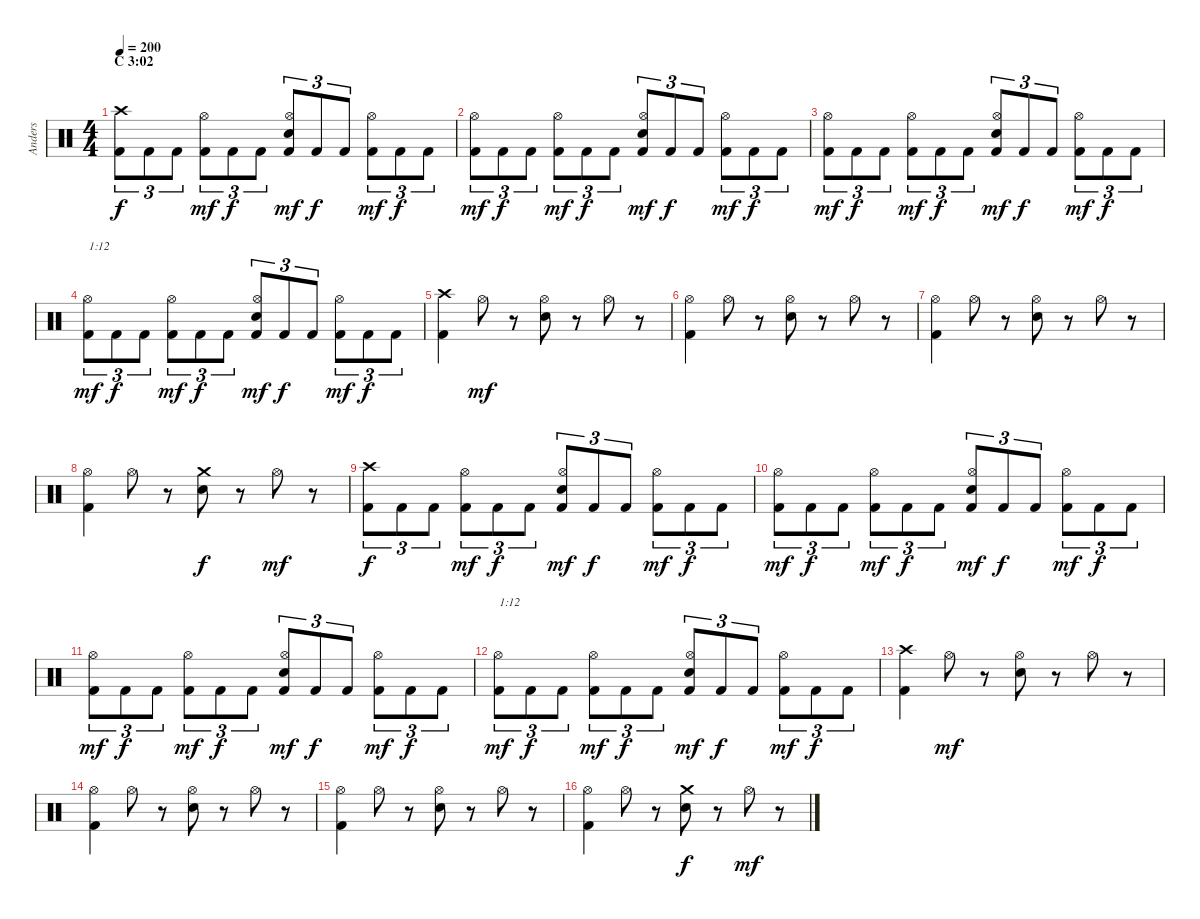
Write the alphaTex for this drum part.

\track ("Anders" "Anders") {instrument percussion}
\staff {score}
\articulation defaults
\ts (4 4)
\section ("" "C 3:02")
\tempo 200
\clef neutral
\ks c
("Kick (hit) 2" "Crash high (hit)").8{tu (3 2) dy f} "Kick (hit) 2".8{tu (3 2)} "Kick (hit) 2".8{tu (3 2)} ("Kick (hit) 2" "Hi-Hat (open)").8{tu (3 2) dy mf} "Kick (hit) 2".8{tu (3 2) dy f} "Kick (hit) 2".8{tu (3 2)} ("Kick (hit) 2" "Electric Snare (hit)" "Hi-Hat (open)").8{tu (3 2) dy mf} "Kick (hit) 2".8{tu (3 2) dy f} "Kick (hit) 2".8{tu (3 2)} ("Kick (hit) 2" "Hi-Hat (open)").8{tu (3 2) dy mf} "Kick (hit) 2".8{tu (3 2) dy f} "Kick (hit) 2".8{tu (3 2)} |
("Kick (hit) 2" "Hi-Hat (open)").8{tu (3 2) dy mf} "Kick (hit) 2".8{tu (3 2) dy f} "Kick (hit) 2".8{tu (3 2)} ("Kick (hit) 2" "Hi-Hat (open)").8{tu (3 2) dy mf} "Kick (hit) 2".8{tu (3 2) dy f} "Kick (hit) 2".8{tu (3 2)} ("Kick (hit) 2" "Electric Snare (hit)" "Hi-Hat (open)").8{tu (3 2) dy mf} "Kick (hit) 2".8{tu (3 2) dy f} "Kick (hit) 2".8{tu (3 2)} ("Kick (hit) 2" "Hi-Hat (open)").8{tu (3 2) dy mf} "Kick (hit) 2".8{tu (3 2) dy f} "Kick (hit) 2".8{tu (3 2)} |
("Kick (hit) 2" "Hi-Hat (open)").8{tu (3 2) dy mf} "Kick (hit) 2".8{tu (3 2) dy f} "Kick (hit) 2".8{tu (3 2)} ("Kick (hit) 2" "Hi-Hat (open)").8{tu (3 2) dy mf} "Kick (hit) 2".8{tu (3 2) dy f} "Kick (hit) 2".8{tu (3 2)} ("Kick (hit) 2" "Electric Snare (hit)" "Hi-Hat (open)").8{tu (3 2) dy mf} "Kick (hit) 2".8{tu (3 2) dy f} "Kick (hit) 2".8{tu (3 2)} ("Kick (hit) 2" "Hi-Hat (open)").8{tu (3 2) dy mf} "Kick (hit) 2".8{tu (3 2) dy f} "Kick (hit) 2".8{tu (3 2)} |
("Kick (hit) 2" "Hi-Hat (open)").8{tu (3 2) txt "1:12" dy mf} "Kick (hit) 2".8{tu (3 2) dy f} "Kick (hit) 2".8{tu (3 2)} ("Kick (hit) 2" "Hi-Hat (open)").8{tu (3 2) dy mf} "Kick (hit) 2".8{tu (3 2) dy f} "Kick (hit) 2".8{tu (3 2)} ("Kick (hit) 2" "Electric Snare (hit)" "Hi-Hat (open)").8{tu (3 2) dy mf} "Kick (hit) 2".8{tu (3 2) dy f} "Kick (hit) 2".8{tu (3 2)} ("Kick (hit) 2" "Hi-Hat (open)").8{tu (3 2) dy mf} "Kick (hit) 2".8{tu (3 2) dy f} "Kick (hit) 2".8{tu (3 2)} |
("Kick (hit) 2" "Crash high (hit)").4 "Hi-Hat (open)".8{dy mf} r.8 ("Electric Snare (hit)" "Hi-Hat (open)").8 r.8 "Hi-Hat (open)".8 r.8 |
("Kick (hit) 2" "Hi-Hat (open)").4 "Hi-Hat (open)".8 r.8 ("Electric Snare (hit)" "Hi-Hat (open)").8 r.8 "Hi-Hat (open)".8 r.8 |
("Kick (hit) 2" "Hi-Hat (open)").4 "Hi-Hat (open)".8 r.8 ("Electric Snare (hit)" "Hi-Hat (open)").8 r.8 "Hi-Hat (open)".8 r.8 |
("Kick (hit) 2" "Hi-Hat (open)").4 "Hi-Hat (open)".8 r.8 ("Electric Snare (hit)" "Crash medium (hit)").8{dy f} r.8 "Hi-Hat (open)".8{dy mf} r.8 |
("Kick (hit) 2" "Crash high (hit)").8{tu (3 2) dy f} "Kick (hit) 2".8{tu (3 2)} "Kick (hit) 2".8{tu (3 2)} ("Kick (hit) 2" "Hi-Hat (open)").8{tu (3 2) dy mf} "Kick (hit) 2".8{tu (3 2) dy f} "Kick (hit) 2".8{tu (3 2)} ("Kick (hit) 2" "Electric Snare (hit)" "Hi-Hat (open)").8{tu (3 2) dy mf} "Kick (hit) 2".8{tu (3 2) dy f} "Kick (hit) 2".8{tu (3 2)} ("Kick (hit) 2" "Hi-Hat (open)").8{tu (3 2) dy mf} "Kick (hit) 2".8{tu (3 2) dy f} "Kick (hit) 2".8{tu (3 2)} |
("Kick (hit) 2" "Hi-Hat (open)").8{tu (3 2) dy mf} "Kick (hit) 2".8{tu (3 2) dy f} "Kick (hit) 2".8{tu (3 2)} ("Kick (hit) 2" "Hi-Hat (open)").8{tu (3 2) dy mf} "Kick (hit) 2".8{tu (3 2) dy f} "Kick (hit) 2".8{tu (3 2)} ("Kick (hit) 2" "Electric Snare (hit)" "Hi-Hat (open)").8{tu (3 2) dy mf} "Kick (hit) 2".8{tu (3 2) dy f} "Kick (hit) 2".8{tu (3 2)} ("Kick (hit) 2" "Hi-Hat (open)").8{tu (3 2) dy mf} "Kick (hit) 2".8{tu (3 2) dy f} "Kick (hit) 2".8{tu (3 2)} |
("Kick (hit) 2" "Hi-Hat (open)").8{tu (3 2) dy mf} "Kick (hit) 2".8{tu (3 2) dy f} "Kick (hit) 2".8{tu (3 2)} ("Kick (hit) 2" "Hi-Hat (open)").8{tu (3 2) dy mf} "Kick (hit) 2".8{tu (3 2) dy f} "Kick (hit) 2".8{tu (3 2)} ("Kick (hit) 2" "Electric Snare (hit)" "Hi-Hat (open)").8{tu (3 2) dy mf} "Kick (hit) 2".8{tu (3 2) dy f} "Kick (hit) 2".8{tu (3 2)} ("Kick (hit) 2" "Hi-Hat (open)").8{tu (3 2) dy mf} "Kick (hit) 2".8{tu (3 2) dy f} "Kick (hit) 2".8{tu (3 2)} |
("Kick (hit) 2" "Hi-Hat (open)").8{tu (3 2) txt "1:12" dy mf} "Kick (hit) 2".8{tu (3 2) dy f} "Kick (hit) 2".8{tu (3 2)} ("Kick (hit) 2" "Hi-Hat (open)").8{tu (3 2) dy mf} "Kick (hit) 2".8{tu (3 2) dy f} "Kick (hit) 2".8{tu (3 2)} ("Kick (hit) 2" "Electric Snare (hit)" "Hi-Hat (open)").8{tu (3 2) dy mf} "Kick (hit) 2".8{tu (3 2) dy f} "Kick (hit) 2".8{tu (3 2)} ("Kick (hit) 2" "Hi-Hat (open)").8{tu (3 2) dy mf} "Kick (hit) 2".8{tu (3 2) dy f} "Kick (hit) 2".8{tu (3 2)} |
("Kick (hit) 2" "Crash high (hit)").4 "Hi-Hat (open)".8{dy mf} r.8 ("Electric Snare (hit)" "Hi-Hat (open)").8 r.8 "Hi-Hat (open)".8 r.8 |
("Kick (hit) 2" "Hi-Hat (open)").4 "Hi-Hat (open)".8 r.8 ("Electric Snare (hit)" "Hi-Hat (open)").8 r.8 "Hi-Hat (open)".8 r.8 |
("Kick (hit) 2" "Hi-Hat (open)").4 "Hi-Hat (open)".8 r.8 ("Electric Snare (hit)" "Hi-Hat (open)").8 r.8 "Hi-Hat (open)".8 r.8 |
("Kick (hit) 2" "Hi-Hat (open)").4 "Hi-Hat (open)".8 r.8 ("Electric Snare (hit)" "Crash medium (hit)").8{dy f} r.8 "Hi-Hat (open)".8{dy mf} r.8
